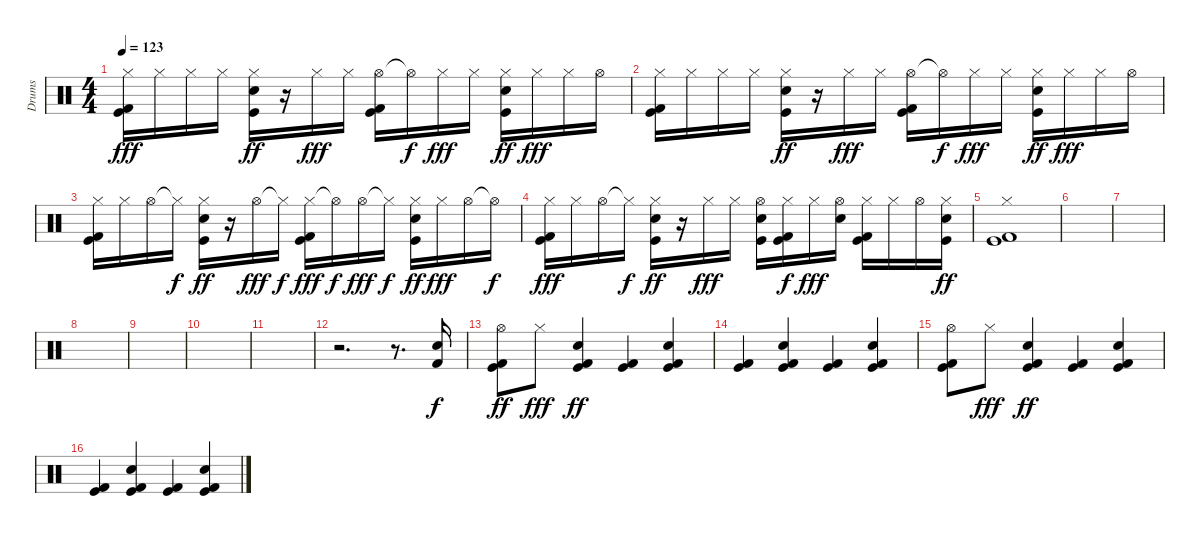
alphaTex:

\track ("Drums" "Drums") {instrument percussion}
\staff {score}
\articulation defaults
\ts (4 4)
\tempo 123
\clef neutral
\ks c
("Hi-Hat (closed)" "Kick (hit) 2" "Kick (hit)").16{dy fff} "Hi-Hat (closed)".16 "Hi-Hat (closed)".16 "Hi-Hat (closed)".16 ("Hi-Hat (closed)" "Snare (hit) 2" "Kick (hit)").16{dy ff} r.16 "Hi-Hat (closed)".16{dy fff} "Hi-Hat (closed)".16 ("Hi-Hat (open)" "Kick (hit) 2" "Kick (hit)").16 "Hi-Hat (open)"{t}.16{dy f} "Hi-Hat (closed)".16{dy fff} "Hi-Hat (closed)".16 ("Hi-Hat (closed)" "Snare (hit) 2" "Kick (hit)").16{dy ff} "Hi-Hat (closed)".16{dy fff} "Hi-Hat (closed)".16 "Hi-Hat (open)".16 |
("Hi-Hat (closed)" "Kick (hit) 2" "Kick (hit)").16 "Hi-Hat (closed)".16 "Hi-Hat (closed)".16 "Hi-Hat (closed)".16 ("Hi-Hat (closed)" "Snare (hit) 2" "Kick (hit)").16{dy ff} r.16 "Hi-Hat (closed)".16{dy fff} "Hi-Hat (closed)".16 ("Hi-Hat (open)" "Kick (hit) 2" "Kick (hit)").16 "Hi-Hat (open)"{t}.16{dy f} "Hi-Hat (closed)".16{dy fff} "Hi-Hat (closed)".16 ("Hi-Hat (closed)" "Snare (hit) 2" "Kick (hit)").16{dy ff} "Hi-Hat (closed)".16{dy fff} "Hi-Hat (closed)".16 "Hi-Hat (open)".16 |
("Hi-Hat (closed)" "Kick (hit) 2" "Kick (hit)").16 "Hi-Hat (closed)".16 "Hi-Hat (open)".16 "Hi-Hat (closed)"{t}.16{dy f} ("Hi-Hat (closed)" "Snare (hit) 2" "Kick (hit)").16{dy ff} r.16 "Hi-Hat (open)".16{dy fff} "Hi-Hat (closed)"{t}.16{dy f} ("Hi-Hat (closed)" "Kick (hit) 2" "Kick (hit)").16{dy fff} "Hi-Hat (open)"{t}.16{dy f} "Hi-Hat (open)".16{dy fff} "Hi-Hat (closed)"{t}.16{dy f} ("Hi-Hat (closed)" "Snare (hit) 2" "Kick (hit)").16{dy ff} "Hi-Hat (closed)".16{dy fff} "Hi-Hat (open)".16 "Hi-Hat (open)"{t}.16{dy f} |
("Hi-Hat (closed)" "Kick (hit) 2" "Kick (hit)").16{dy fff} "Hi-Hat (closed)".16 "Hi-Hat (open)".16 "Hi-Hat (closed)"{t}.16{dy f} ("Hi-Hat (closed)" "Snare (hit) 2" "Kick (hit)").16{dy ff} r.16 "Hi-Hat (closed)".16{dy fff} "Hi-Hat (closed)".16 ("Hi-Hat (open)" "Snare (hit) 2" "Kick (hit)").16 ("Hi-Hat (closed)" "Kick (hit)" "Kick (hit) 2").16{dy f} "Hi-Hat (closed)".16{dy fff} ("Hi-Hat (open)" "Snare (hit) 2").16 ("Hi-Hat (closed)" "Kick (hit)" "Kick (hit) 2").16 "Hi-Hat (closed)".16 "Hi-Hat (open)".16 ("Hi-Hat (closed)" "Snare (hit) 2" "Kick (hit)").16{dy ff} |
("Hi-Hat (closed)" "Kick (hit)" "Kick (hit) 2").1 |
|
|
|
|
|
|
r.2{d} r.8{d} ("Snare (hit) 2" "Kick (hit) 2").16{dy f} |
("Hi-Hat (open)" "Kick (hit)" "Kick (hit) 2").8{dy ff} "Hi-Hat (closed)".8{dy fff} ("Snare (hit) 2" "Kick (hit)" "Kick (hit) 2").4{dy ff} ("Kick (hit)" "Kick (hit) 2").4 ("Snare (hit) 2" "Kick (hit)" "Kick (hit) 2").4 |
("Kick (hit)" "Kick (hit) 2").4 ("Snare (hit) 2" "Kick (hit)" "Kick (hit) 2").4 ("Kick (hit)" "Kick (hit) 2").4 ("Snare (hit) 2" "Kick (hit)" "Kick (hit) 2").4 |
("Hi-Hat (open)" "Kick (hit)" "Kick (hit) 2").8 "Hi-Hat (closed)".8{dy fff} ("Snare (hit) 2" "Kick (hit)" "Kick (hit) 2").4{dy ff} ("Kick (hit)" "Kick (hit) 2").4 ("Snare (hit) 2" "Kick (hit)" "Kick (hit) 2").4 |
("Kick (hit)" "Kick (hit) 2").4 ("Snare (hit) 2" "Kick (hit)" "Kick (hit) 2").4 ("Kick (hit)" "Kick (hit) 2").4 ("Snare (hit) 2" "Kick (hit)" "Kick (hit) 2").4
